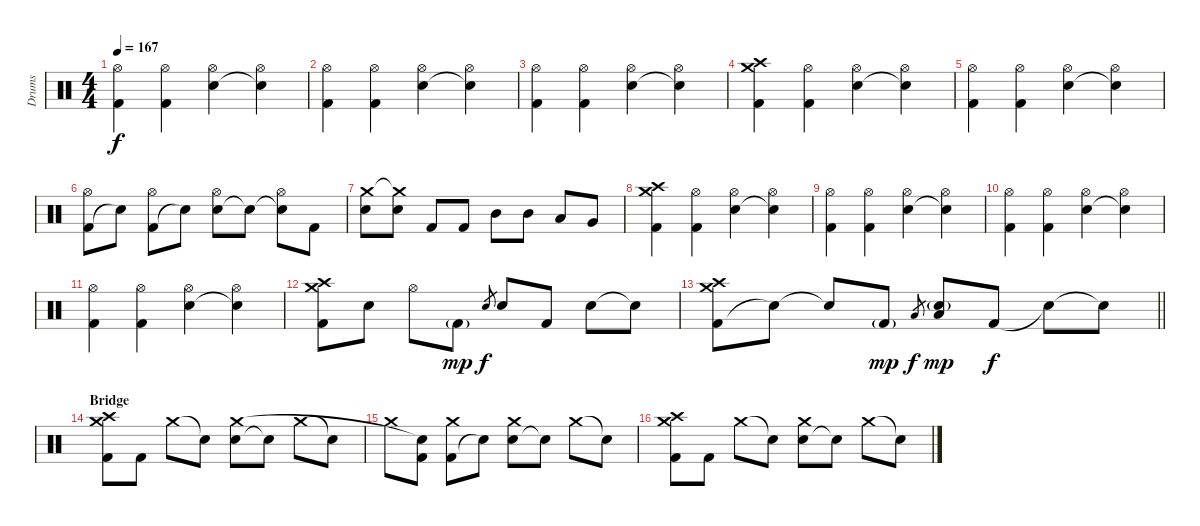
\track ("Drums" "Drums") {instrument percussion}
\staff {score}
\articulation defaults
\ts (4 4)
\tempo 167
\clef neutral
\ks c
("Kick (hit) 2" "Hi-Hat (open)").4{dy f} ("Kick (hit) 2" "Hi-Hat (open)").4 ("Electric Snare (hit)" "Hi-Hat (open)").4 ("Snare (hit)"{t} "Hi-Hat (open)").4 |
("Kick (hit) 2" "Hi-Hat (open)").4 ("Kick (hit) 2" "Hi-Hat (open)").4 ("Electric Snare (hit)" "Hi-Hat (open)").4 ("Snare (hit)"{t} "Hi-Hat (open)").4 |
("Kick (hit) 2" "Hi-Hat (open)").4 ("Kick (hit) 2" "Hi-Hat (open)").4 ("Electric Snare (hit)" "Hi-Hat (open)").4 ("Snare (hit)"{t} "Hi-Hat (open)").4 |
("Kick (hit) 2" "Crash medium (hit)" "Crash high (hit)").4 ("Kick (hit) 2" "Hi-Hat (open)").4 ("Electric Snare (hit)" "Hi-Hat (open)").4 ("Snare (hit)"{t} "Hi-Hat (open)").4 |
("Kick (hit) 2" "Hi-Hat (open)").4 ("Kick (hit) 2" "Hi-Hat (open)").4 ("Electric Snare (hit)" "Hi-Hat (open)").4 ("Snare (hit)"{t} "Hi-Hat (open)").4 |
("Kick (hit) 2" "Hi-Hat (open)").8 "Snare (hit)"{t}.8 ("Kick (hit) 2" "Hi-Hat (open)").8 "Snare (hit)"{t}.8 ("Electric Snare (hit)" "Hi-Hat (open)").8 "Snare (hit)"{t}.8 ("Snare (hit)"{t} "Hi-Hat (open)").8 "Kick (hit) 2".8 |
("Electric Snare (hit)" "Crash medium (hit)").8 ("Electric Snare (hit)" "Crash medium (hit)"{t}).8 "Kick (hit) 2".8 "Kick (hit) 2".8 "Mid Tom (hit)".8 "Mid Tom (hit)".8 "Low Tom (hit)".8 "Very Low Tom (hit)".8 |
("Kick (hit) 2" "Crash medium (hit)" "Crash high (hit)").4 ("Kick (hit) 2" "Hi-Hat (open)").4 ("Electric Snare (hit)" "Hi-Hat (open)").4 ("Snare (hit)"{t} "Hi-Hat (open)").4 |
("Kick (hit) 2" "Hi-Hat (open)").4 ("Kick (hit) 2" "Hi-Hat (open)").4 ("Electric Snare (hit)" "Hi-Hat (open)").4 ("Snare (hit)"{t} "Hi-Hat (open)").4 |
("Kick (hit) 2" "Hi-Hat (open)").4 ("Kick (hit) 2" "Hi-Hat (open)").4 ("Electric Snare (hit)" "Hi-Hat (open)").4 ("Snare (hit)"{t} "Hi-Hat (open)").4 |
("Kick (hit) 2" "Hi-Hat (open)").4 ("Kick (hit) 2" "Hi-Hat (open)").4 ("Electric Snare (hit)" "Hi-Hat (open)").4 ("Snare (hit)"{t} "Hi-Hat (open)").4 |
("Kick (hit) 2" "Crash medium (hit)" "Crash high (hit)").8 "Electric Snare (hit)".8 "Hi-Hat (open)".8 "Kick (hit) 2"{g}.8{dy mp} "Electric Snare (hit)".8{gr dy f} "Electric Snare (hit)".8 "Kick (hit) 2".8 "Electric Snare (hit)".8 "Snare (hit)"{t}.8 |
\barLineRight lightlight
("Kick (hit) 2" "Crash medium (hit)" "Crash high (hit)").8 "Snare (hit)"{t}.8 "Snare (hit)"{t}.8 "Kick (hit) 2"{g}.8{dy mp} "Low Tom (hit)".8{gr dy f} ("Low Tom (hit)" "Electric Snare (hit)"{g}).8{dy mp} "Kick (hit) 2".8{dy f} "Snare (hit)"{t}.8 "Snare (hit)"{t}.8 |
\section ("" "Bridge")
("Kick (hit) 2" "Crash medium (hit)" "Crash high (hit)").8 "Kick (hit) 2".8 "Crash medium (hit)".8 "Snare (hit)"{t}.8 ("Electric Snare (hit)" "Crash medium (hit)").8 "Snare (hit)"{t}.8 "Crash medium (hit)".8 "Snare (hit)"{t}.8 |
"Crash medium (hit)".8 ("Kick (hit) 2" "Snare (hit)"{t}).8 ("Kick (hit) 2" "Crash medium (hit)").8 "Snare (hit)"{t}.8 ("Electric Snare (hit)" "Crash medium (hit)").8 "Snare (hit)"{t}.8 "Crash medium (hit)".8 "Snare (hit)"{t}.8 |
("Kick (hit) 2" "Crash medium (hit)" "Crash high (hit)").8 "Kick (hit) 2".8 "Crash medium (hit)".8 "Snare (hit)"{t}.8 ("Electric Snare (hit)" "Crash medium (hit)").8 "Snare (hit)"{t}.8 "Crash medium (hit)".8 "Snare (hit)"{t}.8
